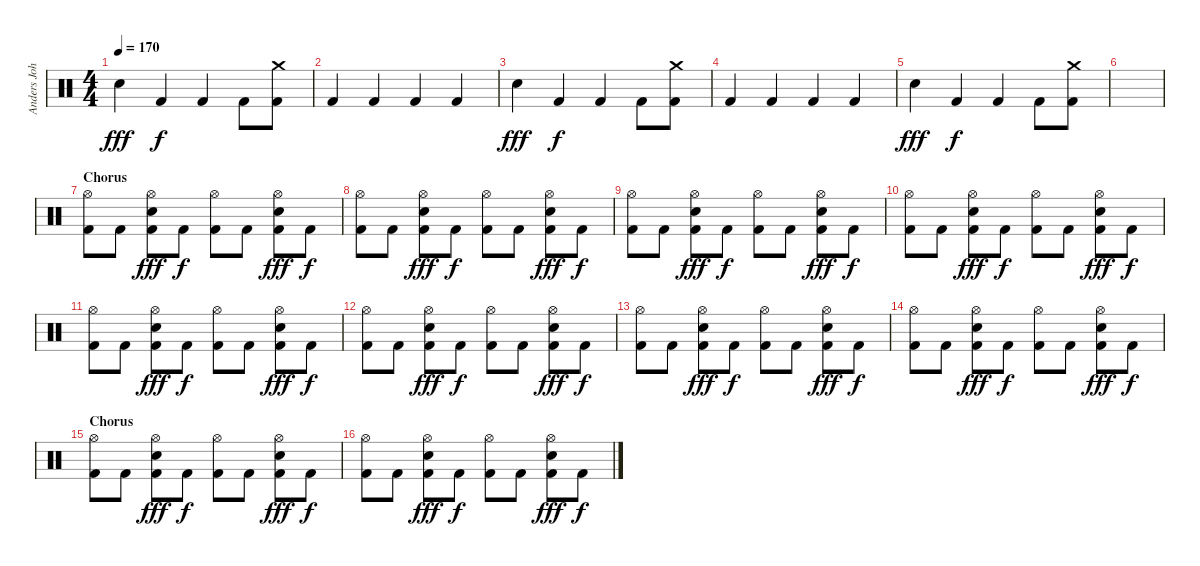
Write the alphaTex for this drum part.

\track ("Anders Johansson" "Anders Joh") {instrument percussion}
\staff {score}
\articulation defaults
\ts (4 4)
\tempo 170
\clef neutral
\ks c "Snare (hit) 2".4{dy fff} "Kick (hit) 2".4{dy f} "Kick (hit) 2".4 "Kick (hit) 2".8
("Crash medium (hit)" "Kick (hit) 2").8 |
"Kick (hit) 2".4 "Kick (hit) 2".4 "Kick (hit) 2".4 "Kick (hit) 2".4 |
"Snare (hit) 2".4{dy fff} "Kick (hit) 2".4{dy f} "Kick (hit) 2".4 "Kick (hit) 2".8 ("Crash medium (hit)" "Kick (hit) 2").8 |
"Kick (hit) 2".4 "Kick (hit) 2".4 "Kick (hit) 2".4 "Kick (hit) 2".4 |
"Snare (hit) 2".4{dy fff} "Kick (hit) 2".4{dy f} "Kick (hit) 2".4 "Kick (hit) 2".8 ("Crash medium (hit)" "Kick (hit) 2").8 |
|
\section ("" "Chorus")
("Hi-Hat (open)" "Kick (hit) 2").8 "Kick (hit) 2".8 ("Hi-Hat (open)" "Snare (hit) 2" "Kick (hit) 2").8{dy fff} "Kick (hit) 2".8{dy f} ("Hi-Hat (open)" "Kick (hit) 2").8 "Kick (hit) 2".8 ("Hi-Hat (open)" "Snare (hit) 2" "Kick (hit) 2").8{dy fff} "Kick (hit) 2".8{dy f} |
("Hi-Hat (open)" "Kick (hit) 2").8 "Kick (hit) 2".8 ("Hi-Hat (open)" "Snare (hit) 2" "Kick (hit) 2").8{dy fff} "Kick (hit) 2".8{dy f} ("Hi-Hat (open)" "Kick (hit) 2").8 "Kick (hit) 2".8 ("Hi-Hat (open)" "Snare (hit) 2" "Kick (hit) 2").8{dy fff} "Kick (hit) 2".8{dy f} |
("Hi-Hat (open)" "Kick (hit) 2").8 "Kick (hit) 2".8 ("Hi-Hat (open)" "Snare (hit) 2" "Kick (hit) 2").8{dy fff} "Kick (hit) 2".8{dy f} ("Hi-Hat (open)" "Kick (hit) 2").8 "Kick (hit) 2".8 ("Hi-Hat (open)" "Snare (hit) 2" "Kick (hit) 2").8{dy fff} "Kick (hit) 2".8{dy f} |
("Hi-Hat (open)" "Kick (hit) 2").8 "Kick (hit) 2".8 ("Hi-Hat (open)" "Snare (hit) 2" "Kick (hit) 2").8{dy fff} "Kick (hit) 2".8{dy f} ("Hi-Hat (open)" "Kick (hit) 2").8 "Kick (hit) 2".8 ("Hi-Hat (open)" "Snare (hit) 2" "Kick (hit) 2").8{dy fff} "Kick (hit) 2".8{dy f} |
("Hi-Hat (open)" "Kick (hit) 2").8 "Kick (hit) 2".8 ("Hi-Hat (open)" "Snare (hit) 2" "Kick (hit) 2").8{dy fff} "Kick (hit) 2".8{dy f} ("Hi-Hat (open)" "Kick (hit) 2").8 "Kick (hit) 2".8 ("Hi-Hat (open)" "Snare (hit) 2" "Kick (hit) 2").8{dy fff} "Kick (hit) 2".8{dy f} |
("Hi-Hat (open)" "Kick (hit) 2").8 "Kick (hit) 2".8 ("Hi-Hat (open)" "Snare (hit) 2" "Kick (hit) 2").8{dy fff} "Kick (hit) 2".8{dy f} ("Hi-Hat (open)" "Kick (hit) 2").8 "Kick (hit) 2".8 ("Hi-Hat (open)" "Snare (hit) 2" "Kick (hit) 2").8{dy fff} "Kick (hit) 2".8{dy f} |
("Hi-Hat (open)" "Kick (hit) 2").8 "Kick (hit) 2".8 ("Hi-Hat (open)" "Snare (hit) 2" "Kick (hit) 2").8{dy fff} "Kick (hit) 2".8{dy f} ("Hi-Hat (open)" "Kick (hit) 2").8 "Kick (hit) 2".8 ("Hi-Hat (open)" "Snare (hit) 2" "Kick (hit) 2").8{dy fff} "Kick (hit) 2".8{dy f} |
("Hi-Hat (open)" "Kick (hit) 2").8 "Kick (hit) 2".8 ("Hi-Hat (open)" "Snare (hit) 2" "Kick (hit) 2").8{dy fff} "Kick (hit) 2".8{dy f} ("Hi-Hat (open)" "Kick (hit) 2").8 "Kick (hit) 2".8 ("Hi-Hat (open)" "Snare (hit) 2" "Kick (hit) 2").8{dy fff} "Kick (hit) 2".8{dy f} |
\section ("" "Chorus")
("Hi-Hat (open)" "Kick (hit) 2").8 "Kick (hit) 2".8 ("Hi-Hat (open)" "Snare (hit) 2" "Kick (hit) 2").8{dy fff} "Kick (hit) 2".8{dy f} ("Hi-Hat (open)" "Kick (hit) 2").8 "Kick (hit) 2".8 ("Hi-Hat (open)" "Snare (hit) 2" "Kick (hit) 2").8{dy fff} "Kick (hit) 2".8{dy f} |
("Hi-Hat (open)" "Kick (hit) 2").8 "Kick (hit) 2".8 ("Hi-Hat (open)" "Snare (hit) 2" "Kick (hit) 2").8{dy fff} "Kick (hit) 2".8{dy f} ("Hi-Hat (open)" "Kick (hit) 2").8 "Kick (hit) 2".8 ("Hi-Hat (open)" "Snare (hit) 2" "Kick (hit) 2").8{dy fff} "Kick (hit) 2".8{dy f}
